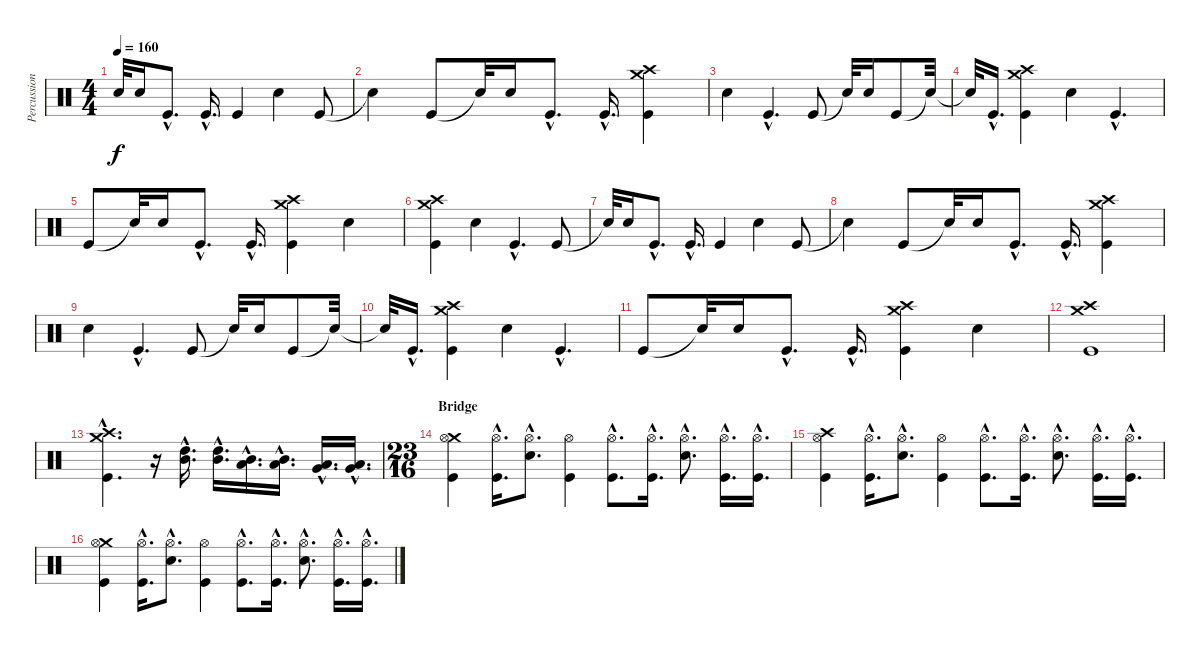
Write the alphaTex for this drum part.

\track ("Percussion" "Percussion") {instrument percussion}
\staff {score}
\articulation defaults
\ts (4 4)
\tempo 160
\clef neutral
\ks c "Snare (hit)"{t}.32{dy f} "Electric Snare (hit)".16 "Kick (hit)"{hac}.8{d} "Kick (hit)"{hac}.16{d} "Kick (hit)".4 "Electric Snare (hit)".4 "Kick (hit)".8
|
"Snare (hit)"{t}.4 "Kick (hit)".8 "Snare (hit)"{t}.32 "Electric Snare (hit)".16 "Kick (hit)"{hac}.8{d} "Kick (hit)"{hac}.16{d} ("Crash medium (hit)" "Crash high (hit)" "Kick (hit)").4 |
"Electric Snare (hit)".4 "Kick (hit)"{hac}.4{d} "Kick (hit)".8 "Snare (hit)"{t}.32 "Electric Snare (hit)".16 "Kick (hit)".8 "Snare (hit)"{t}.32 |
"Snare (hit)"{t}.32 "Kick (hit)"{hac}.16{d} ("Crash medium (hit)" "Crash high (hit)" "Kick (hit)").4 "Electric Snare (hit)".4 "Kick (hit)"{hac}.4{d} |
"Kick (hit)".8 "Snare (hit)"{t}.32 "Electric Snare (hit)".16 "Kick (hit)"{hac}.8{d} "Kick (hit)"{hac}.16{d} ("Crash medium (hit)" "Crash high (hit)" "Kick (hit)").4 "Electric Snare (hit)".4 |
("Crash medium (hit)" "Crash high (hit)" "Kick (hit)").4 "Electric Snare (hit)".4 "Kick (hit)"{hac}.4{d} "Kick (hit)".8 |
"Snare (hit)"{t}.32 "Electric Snare (hit)".16 "Kick (hit)"{hac}.8{d} "Kick (hit)"{hac}.16{d} "Kick (hit)".4 "Electric Snare (hit)".4 "Kick (hit)".8 |
"Snare (hit)"{t}.4 "Kick (hit)".8 "Snare (hit)"{t}.32 "Electric Snare (hit)".16 "Kick (hit)"{hac}.8{d} "Kick (hit)"{hac}.16{d} ("Crash medium (hit)" "Crash high (hit)" "Kick (hit)").4 |
"Electric Snare (hit)".4 "Kick (hit)"{hac}.4{d} "Kick (hit)".8 "Snare (hit)"{t}.32 "Electric Snare (hit)".16 "Kick (hit)".8 "Snare (hit)"{t}.32 |
"Snare (hit)"{t}.32 "Kick (hit)"{hac}.16{d} ("Crash medium (hit)" "Crash high (hit)" "Kick (hit)").4 "Electric Snare (hit)".4 "Kick (hit)"{hac}.4{d} |
"Kick (hit)".8 "Snare (hit)"{t}.32 "Electric Snare (hit)".16 "Kick (hit)"{hac}.8{d} "Kick (hit)"{hac}.16{d} ("Crash medium (hit)" "Crash high (hit)" "Kick (hit)").4 "Electric Snare (hit)".4 |
("Crash medium (hit)" "Crash high (hit)" "Kick (hit)").1 |
("Crash medium (hit)"{hac} "Crash high (hit)"{hac} "Kick (hit)"{hac}).4{d} r.16 ("High Tom (hit)"{hac} "Mid Tom (hit)"{hac}).16{d} ("High Tom (hit)"{hac} "Mid Tom (hit)"{hac}).16{d} ("Mid Tom (hit)"{hac} "Low Tom (hit)"{hac}).16{d} ("Mid Tom (hit)"{hac} "Low Tom (hit)"{hac}).16{d} ("Low Tom (hit)"{hac} "Very Low Tom (hit)"{hac}).16{d} ("Low Tom (hit)"{hac} "Very Low Tom (hit)"{hac}).16{d} |
\ts (23 16)
\section ("" "Bridge")
("Crash medium (hit)" "Hi-Hat (open)" "Kick (hit)").4 ("Hi-Hat (open)"{hac} "Kick (hit)"{hac}).16{d} ("Hi-Hat (open)"{hac} "Electric Snare (hit)"{hac}).8{d} ("Hi-Hat (open)" "Kick (hit)").4 ("Hi-Hat (open)"{hac} "Kick (hit)"{hac}).8{d} ("Hi-Hat (open)"{hac} "Kick (hit)"{hac}).16{d} ("Hi-Hat (open)"{hac} "Electric Snare (hit)"{hac}).8{d} ("Hi-Hat (open)"{hac} "Kick (hit)"{hac}).16{d} ("Hi-Hat (open)"{hac} "Kick (hit)"{hac}).16{d} |
("Crash high (hit)" "Hi-Hat (open)" "Kick (hit)").4 ("Hi-Hat (open)"{hac} "Kick (hit)"{hac}).16{d} ("Hi-Hat (open)"{hac} "Electric Snare (hit)"{hac}).8{d} ("Hi-Hat (open)" "Kick (hit)").4 ("Hi-Hat (open)"{hac} "Kick (hit)"{hac}).8{d} ("Hi-Hat (open)"{hac} "Kick (hit)"{hac}).16{d} ("Hi-Hat (open)"{hac} "Electric Snare (hit)"{hac}).8{d} ("Hi-Hat (open)"{hac} "Kick (hit)"{hac}).16{d} ("Hi-Hat (open)"{hac} "Kick (hit)"{hac}).16{d} |
("Crash medium (hit)" "Hi-Hat (open)" "Kick (hit)").4 ("Hi-Hat (open)"{hac} "Kick (hit)"{hac}).16{d} ("Hi-Hat (open)"{hac} "Electric Snare (hit)"{hac}).8{d} ("Hi-Hat (open)" "Kick (hit)").4 ("Hi-Hat (open)"{hac} "Kick (hit)"{hac}).8{d} ("Hi-Hat (open)"{hac} "Kick (hit)"{hac}).16{d} ("Hi-Hat (open)"{hac} "Electric Snare (hit)"{hac}).8{d} ("Hi-Hat (open)"{hac} "Kick (hit)"{hac}).16{d} ("Hi-Hat (open)"{hac} "Kick (hit)"{hac}).16{d}
